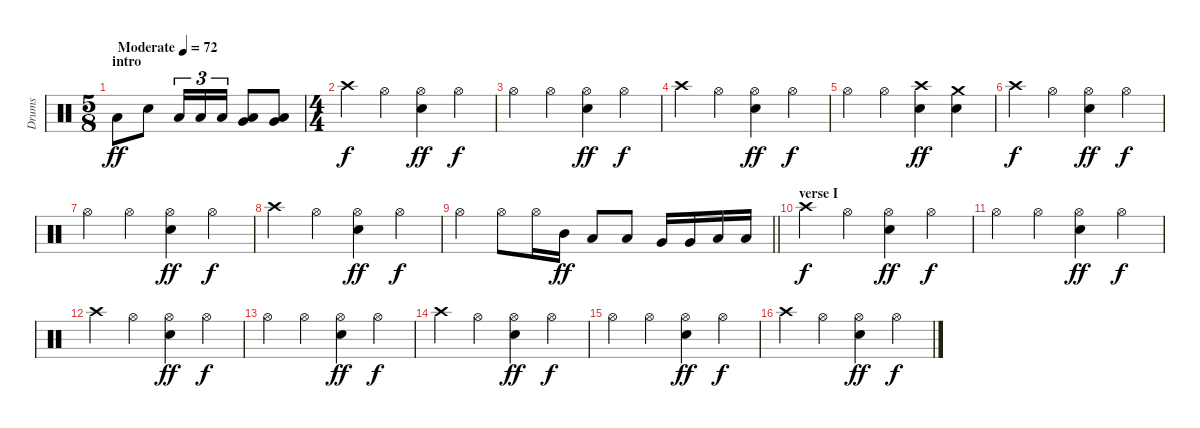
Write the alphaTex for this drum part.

\track ("Drums" "Drums") {instrument percussion}
\staff {score}
\articulation defaults
\ts (5 8)
\section ("" "intro")
\tempo (72 "Moderate")
\clef neutral
\ks c "Low Tom (hit)".8{dy ff} "Snare (hit) 2".8 "Low Tom (hit)".16{tu (3 2)} "Low Tom (hit)".16{tu (3 2)} "Low Tom (hit)".16{tu (3 2)}
("Very Low Tom (hit)" "Low Floor Tom (hit)").8 ("Very Low Tom (hit)" "Low Floor Tom (hit)").8 |
\ts (4 4)
"Crash high (hit)".4{dy f} "Hi-Hat (open)".4 ("Hi-Hat (open)" "Snare (hit) 2").4{dy ff} "Hi-Hat (open)".4{dy f} |
"Hi-Hat (open)".4 "Hi-Hat (open)".4 ("Hi-Hat (open)" "Snare (hit) 2").4{dy ff} "Hi-Hat (open)".4{dy f} |
"Crash high (hit)".4 "Hi-Hat (open)".4 ("Hi-Hat (open)" "Snare (hit) 2").4{dy ff} "Hi-Hat (open)".4{dy f} |
"Hi-Hat (open)".4 "Hi-Hat (open)".4 ("Crash high (hit)" "Snare (hit) 2").4{dy ff} ("Crash medium (hit)" "Snare (hit) 2").4 |
"Crash high (hit)".4{dy f} "Hi-Hat (open)".4 ("Hi-Hat (open)" "Snare (hit) 2").4{dy ff} "Hi-Hat (open)".4{dy f} |
"Hi-Hat (open)".4 "Hi-Hat (open)".4 ("Hi-Hat (open)" "Snare (hit) 2").4{dy ff} "Hi-Hat (open)".4{dy f} |
"Crash high (hit)".4 "Hi-Hat (open)".4 ("Hi-Hat (open)" "Snare (hit) 2").4{dy ff} "Hi-Hat (open)".4{dy f} |
\barLineRight lightlight "Hi-Hat (open)".4 "Hi-Hat (open)".8 "Hi-Hat (open)".16 "Mid Tom (hit)".16{dy ff} "Low Tom (hit)".8 "Low Tom (hit)".8 "Very Low Tom (hit)".16 "Very Low Tom (hit)".16 "Low Floor Tom (hit)".16 "Low Floor Tom (hit)".16
|
\section ("" "verse I")
"Crash high (hit)".4{dy f} "Hi-Hat (open)".4 ("Hi-Hat (open)" "Snare (hit) 2").4{dy ff} "Hi-Hat (open)".4{dy f} |
"Hi-Hat (open)".4 "Hi-Hat (open)".4 ("Hi-Hat (open)" "Snare (hit) 2").4{dy ff} "Hi-Hat (open)".4{dy f} |
"Crash high (hit)".4 "Hi-Hat (open)".4 ("Hi-Hat (open)" "Snare (hit) 2").4{dy ff} "Hi-Hat (open)".4{dy f} |
"Hi-Hat (open)".4 "Hi-Hat (open)".4 ("Hi-Hat (open)" "Snare (hit) 2").4{dy ff} "Hi-Hat (open)".4{dy f} |
"Crash high (hit)".4 "Hi-Hat (open)".4 ("Hi-Hat (open)" "Snare (hit) 2").4{dy ff} "Hi-Hat (open)".4{dy f} |
"Hi-Hat (open)".4 "Hi-Hat (open)".4 ("Hi-Hat (open)" "Snare (hit) 2").4{dy ff} "Hi-Hat (open)".4{dy f} |
"Crash high (hit)".4 "Hi-Hat (open)".4 ("Hi-Hat (open)" "Snare (hit) 2").4{dy ff} "Hi-Hat (open)".4{dy f}
